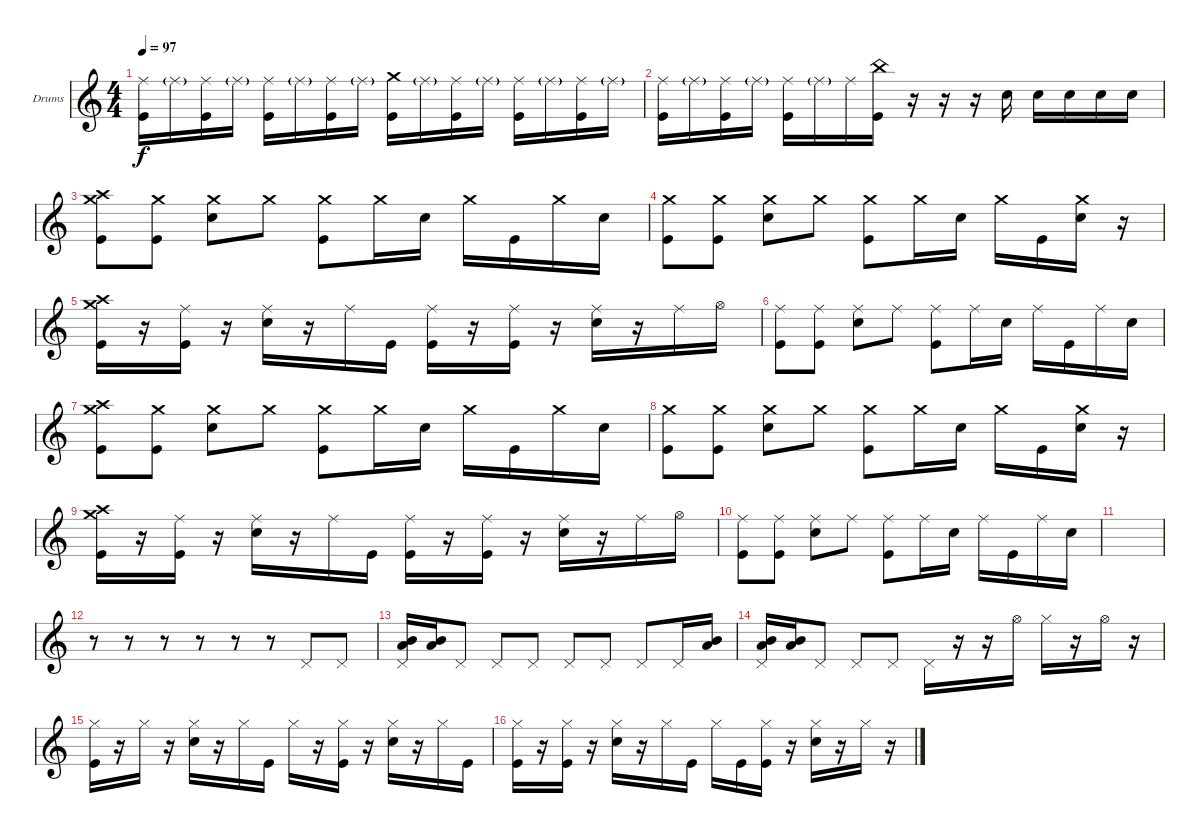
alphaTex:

\defaultSystemsLayout 4
\bracketExtendMode groupsimilarinstruments
\firstSystemTrackNameOrientation horizontal
\otherSystemsTrackNameOrientation horizontal
\track ("David Buckner" "Drums") {instrument percussion}
\staff {score}
\articulation defaults
\ts (4 4)
\tempo 97
\clef g2
\ks c
("Kick (hit)" "Ride (middle)").16{dy f} "Ride (middle)"{g}.16 ("Ride (middle)" "Kick (hit)").16 "Ride (middle)"{g}.16 ("Ride (middle)" "Kick (hit)").16 "Ride (middle)"{g}.16 ("Ride (middle)" "Kick (hit)").16 "Ride (middle)"{g}.16 ("Kick (hit)" "Crash medium (hit)").16 "Ride (middle)"{g}.16 ("Ride (middle)" "Kick (hit)").16 "Ride (middle)"{g}.16 ("Ride (middle)" "Kick (hit)").16 "Ride (middle)"{g}.16 ("Ride (middle)" "Kick (hit)").16 "Ride (middle)"{g}.16 |
("Kick (hit)" "Ride (middle)").16 "Ride (middle)"{g}.16 ("Kick (hit)" "Ride (middle)").16 "Ride (middle)"{g}.16 ("Kick (hit)" "Ride (middle)").16 "Ride (middle)"{g}.16 "Ride (middle)".16 ("Kick (hit)" "China (hit)").16 r.16 r.16 r.16 "Snare (hit) 2".16 "Snare (hit) 2".16 "Snare (hit) 2".16 "Snare (hit) 2".16 "Snare (hit) 2".16 |
("Kick (hit)" "Crash medium (hit)" "Crash high (hit)").8 ("Kick (hit)" "Crash medium (hit)").8 ("Snare (hit) 2" "Crash medium (hit)").8 "Crash medium (hit)".8 ("Kick (hit)" "Crash medium (hit)").8 "Crash medium (hit)".16 "Snare (hit) 2".16 "Crash medium (hit)".16 "Kick (hit)".16 "Crash medium (hit)".16 "Snare (hit) 2".16 |
("Kick (hit)" "Crash medium (hit)").8 ("Kick (hit)" "Crash medium (hit)").8 ("Snare (hit) 2" "Crash medium (hit)").8 "Crash medium (hit)".8 ("Kick (hit)" "Crash medium (hit)").8 "Crash medium (hit)".16 "Snare (hit) 2".16 "Crash medium (hit)".16 "Kick (hit)".16 ("Crash medium (hit)" "Snare (hit) 2").16 r.16 |
("Crash medium (hit)" "Crash high (hit)" "Kick (hit)").16 r.16 ("Kick (hit)" "Ride (middle)").16 r.16 ("Snare (hit) 2" "Ride (middle)").16 r.16 "Ride (middle)".16 "Kick (hit)".16 ("Kick (hit)" "Ride (middle)").16 r.16 ("Kick (hit)" "Ride (middle)").16 r.16 ("Ride (middle)" "Snare (hit) 2").16 r.16 "Ride (middle)".16 "Hi-Hat (open)".16 |
("Kick (hit)" "Ride (middle)").8 ("Kick (hit)" "Ride (middle)").8 ("Snare (hit) 2" "Ride (middle)").8 "Ride (middle)".8 ("Kick (hit)" "Ride (middle)").8 "Ride (middle)".16 "Snare (hit) 2".16 "Ride (middle)".16 "Kick (hit)".16 "Ride (middle)".16 "Snare (hit) 2".16 |
("Kick (hit)" "Crash medium (hit)" "Crash high (hit)").8 ("Kick (hit)" "Crash medium (hit)").8 ("Snare (hit) 2" "Crash medium (hit)").8 "Crash medium (hit)".8 ("Kick (hit)" "Crash medium (hit)").8 "Crash medium (hit)".16 "Snare (hit) 2".16 "Crash medium (hit)".16 "Kick (hit)".16 "Crash medium (hit)".16 "Snare (hit) 2".16 |
("Kick (hit)" "Crash medium (hit)").8 ("Kick (hit)" "Crash medium (hit)").8 ("Snare (hit) 2" "Crash medium (hit)").8 "Crash medium (hit)".8 ("Kick (hit)" "Crash medium (hit)").8 "Crash medium (hit)".16 "Snare (hit) 2".16 "Crash medium (hit)".16 "Kick (hit)".16 ("Crash medium (hit)" "Snare (hit) 2").16 r.16 |
("Crash medium (hit)" "Crash high (hit)" "Kick (hit)").16 r.16 ("Kick (hit)" "Ride (middle)").16 r.16 ("Snare (hit) 2" "Ride (middle)").16 r.16 "Ride (middle)".16 "Kick (hit)".16 ("Kick (hit)" "Ride (middle)").16 r.16 ("Kick (hit)" "Ride (middle)").16 r.16 ("Ride (middle)" "Snare (hit) 2").16 r.16 "Ride (middle)".16 "Hi-Hat (open)".16 |
("Kick (hit)" "Ride (middle)").8 ("Kick (hit)" "Ride (middle)").8 ("Snare (hit) 2" "Ride (middle)").8 "Ride (middle)".8 ("Kick (hit)" "Ride (middle)").8 "Ride (middle)".16 "Snare (hit) 2".16 "Ride (middle)".16 "Kick (hit)".16 "Ride (middle)".16 "Snare (hit) 2".16 |
|
r.8 r.8 r.8 r.8 r.8 r.8 "Pedal Hi-Hat (hit)".8 "Pedal Hi-Hat (hit)".8 |
("Pedal Hi-Hat (hit)" "Low Tom (hit)" "Mid Tom (hit)").16 ("Mid Tom (hit)" "Low Tom (hit)").16 "Pedal Hi-Hat (hit)".8 "Pedal Hi-Hat (hit)".8 "Pedal Hi-Hat (hit)".8 "Pedal Hi-Hat (hit)".8 "Pedal Hi-Hat (hit)".8 "Pedal Hi-Hat (hit)".8 "Pedal Hi-Hat (hit)".16 ("Low Tom (hit)" "Mid Tom (hit)").16 |
("Pedal Hi-Hat (hit)" "Mid Tom (hit)" "Low Tom (hit)").16 ("Low Tom (hit)" "Mid Tom (hit)").16 "Pedal Hi-Hat (hit)".8 "Pedal Hi-Hat (hit)".8 "Pedal Hi-Hat (hit)".8 "Pedal Hi-Hat (hit)".16 r.16 r.16 "Hi-Hat (open)".16 "Hi-Hat (closed)".16 r.16 "Hi-Hat (open)".16 r.16 |
("Hi-Hat (closed)" "Kick (hit)").16 r.16 "Hi-Hat (closed)".16 r.16 ("Hi-Hat (closed)" "Snare (hit) 2").16 r.16 "Hi-Hat (closed)".16 "Kick (hit)".16 "Hi-Hat (closed)".16 r.16 ("Hi-Hat (closed)" "Kick (hit)").16 r.16 ("Hi-Hat (closed)" "Snare (hit) 2").16 r.16 "Hi-Hat (closed)".16 "Kick (hit)".16 |
("Hi-Hat (closed)" "Kick (hit)").16 r.16 ("Hi-Hat (closed)" "Kick (hit)").16 r.16 ("Hi-Hat (closed)" "Snare (hit) 2").16 r.16 "Hi-Hat (closed)".16 "Kick (hit)".16 "Hi-Hat (closed)".16 "Kick (hit)".16 ("Hi-Hat (closed)" "Kick (hit)").16 r.16 ("Hi-Hat (closed)" "Snare (hit) 2").16 r.16 "Hi-Hat (closed)".16 r.16
